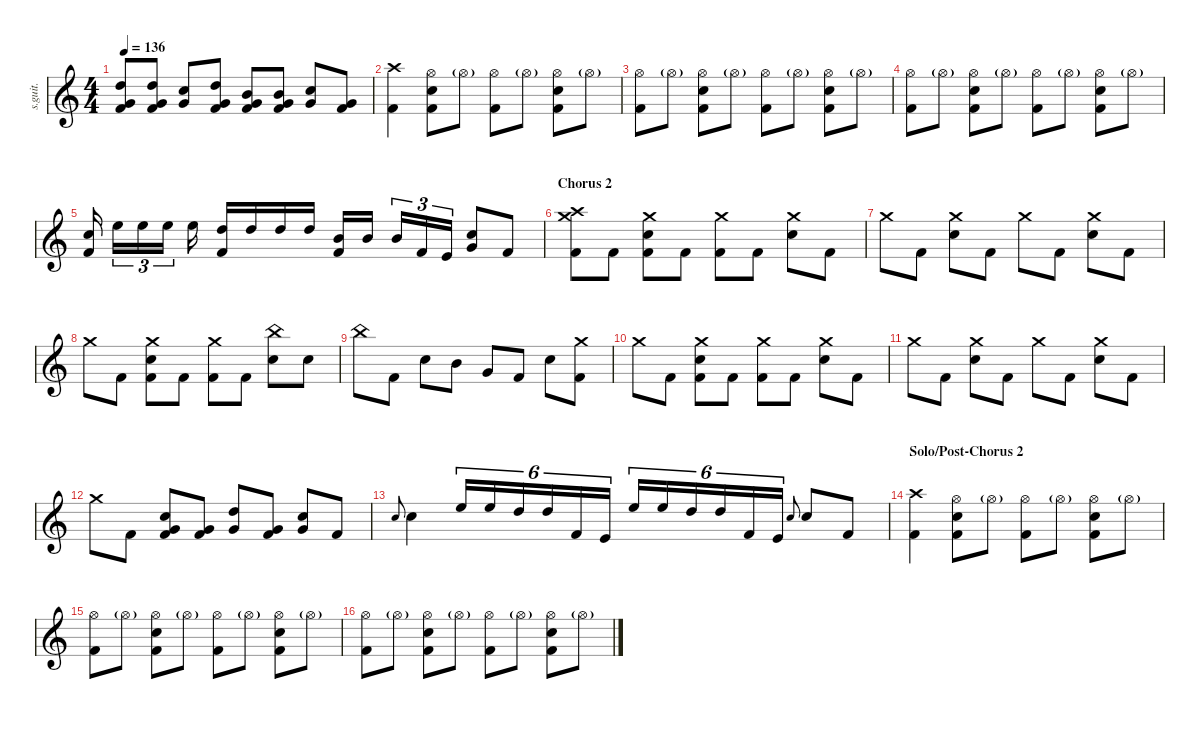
\defaultSystemsLayout 4
\hideDynamics
\bracketExtendMode nobrackets
\track ("Joey Jordison" "s.guit.") {instrument percussion}
\staff {score}
\articulation defaults
\ts (4 4)
\tempo 136
\clef g2
\ks c
("Kick (hit) 2" "High Tom (hit)" "Very Low Tom (hit)").8{lyrics (0 "") lyrics (1 "") lyrics (2 "") lyrics (3 "") lyrics (4 "") dy fff} ("Kick (hit) 2" "High Tom (hit)" "Very Low Tom (hit)").8{lyrics (0 "") lyrics (1 "") lyrics (2 "") lyrics (3 "") lyrics (4 "")} ("Snare (hit) 2" "Very Low Tom (hit)").8{lyrics (0 "") lyrics (1 "") lyrics (2 "") lyrics (3 "") lyrics (4 "")} ("Kick (hit) 2" "High Tom (hit)" "Very Low Tom (hit)").8{lyrics (0 "") lyrics (1 "") lyrics (2 "") lyrics (3 "") lyrics (4 "")} ("Kick (hit) 2" "Mid Tom (hit)" "Very Low Tom (hit)").8{lyrics (0 "") lyrics (1 "") lyrics (2 "") lyrics (3 "") lyrics (4 "")} ("Kick (hit) 2" "Mid Tom (hit)" "Very Low Tom (hit)").8{lyrics (0 "") lyrics (1 "") lyrics (2 "") lyrics (3 "") lyrics (4 "")} ("Snare (hit) 2" "Very Low Tom (hit)").8{lyrics (0 "") lyrics (1 "") lyrics (2 "") lyrics (3 "") lyrics (4 "")} ("Kick (hit) 2" "Very Low Tom (hit)").8{lyrics (0 "") lyrics (1 "") lyrics (2 "") lyrics (3 "") lyrics (4 "")} |
("Crash high (hit)" "Kick (hit) 2").4{lyrics (0 "") lyrics (1 "") lyrics (2 "") lyrics (3 "") lyrics (4 "")} ("Hi-Hat (open)" "Kick (hit) 2" "Snare (hit) 2").8{lyrics (0 "") lyrics (1 "") lyrics (2 "") lyrics (3 "") lyrics (4 "")} "Hi-Hat (open)"{g}.8{lyrics (0 "") lyrics (1 "") lyrics (2 "") lyrics (3 "") lyrics (4 "")} ("Hi-Hat (open)" "Kick (hit) 2").8{lyrics (0 "") lyrics (1 "") lyrics (2 "") lyrics (3 "") lyrics (4 "")} "Hi-Hat (open)"{g}.8{lyrics (0 "") lyrics (1 "") lyrics (2 "") lyrics (3 "") lyrics (4 "")} ("Hi-Hat (open)" "Kick (hit) 2" "Snare (hit) 2").8{lyrics (0 "") lyrics (1 "") lyrics (2 "") lyrics (3 "") lyrics (4 "")} "Hi-Hat (open)"{g}.8{lyrics (0 "") lyrics (1 "") lyrics (2 "") lyrics (3 "") lyrics (4 "")} |
("Hi-Hat (open)" "Kick (hit) 2").8{lyrics (0 "") lyrics (1 "") lyrics (2 "") lyrics (3 "") lyrics (4 "")} "Hi-Hat (open)"{g}.8{lyrics (0 "") lyrics (1 "") lyrics (2 "") lyrics (3 "") lyrics (4 "")} ("Hi-Hat (open)" "Kick (hit) 2" "Snare (hit) 2").8{lyrics (0 "") lyrics (1 "") lyrics (2 "") lyrics (3 "") lyrics (4 "")} "Hi-Hat (open)"{g}.8{lyrics (0 "") lyrics (1 "") lyrics (2 "") lyrics (3 "") lyrics (4 "")} ("Hi-Hat (open)" "Kick (hit) 2").8{lyrics (0 "") lyrics (1 "") lyrics (2 "") lyrics (3 "") lyrics (4 "")} "Hi-Hat (open)"{g}.8{lyrics (0 "") lyrics (1 "") lyrics (2 "") lyrics (3 "") lyrics (4 "")} ("Hi-Hat (open)" "Kick (hit) 2" "Snare (hit) 2").8{lyrics (0 "") lyrics (1 "") lyrics (2 "") lyrics (3 "") lyrics (4 "")} "Hi-Hat (open)"{g}.8{lyrics (0 "") lyrics (1 "") lyrics (2 "") lyrics (3 "") lyrics (4 "")} |
("Hi-Hat (open)" "Kick (hit) 2").8{lyrics (0 "") lyrics (1 "") lyrics (2 "") lyrics (3 "") lyrics (4 "")} "Hi-Hat (open)"{g}.8{lyrics (0 "") lyrics (1 "") lyrics (2 "") lyrics (3 "") lyrics (4 "")} ("Hi-Hat (open)" "Kick (hit) 2" "Snare (hit) 2").8{lyrics (0 "") lyrics (1 "") lyrics (2 "") lyrics (3 "") lyrics (4 "")} "Hi-Hat (open)"{g}.8{lyrics (0 "") lyrics (1 "") lyrics (2 "") lyrics (3 "") lyrics (4 "")} ("Hi-Hat (open)" "Kick (hit) 2").8{lyrics (0 "") lyrics (1 "") lyrics (2 "") lyrics (3 "") lyrics (4 "")} "Hi-Hat (open)"{g}.8{lyrics (0 "") lyrics (1 "") lyrics (2 "") lyrics (3 "") lyrics (4 "")} ("Hi-Hat (open)" "Kick (hit) 2" "Snare (hit) 2").8{lyrics (0 "") lyrics (1 "") lyrics (2 "") lyrics (3 "") lyrics (4 "")} "Hi-Hat (open)"{g}.8{lyrics (0 "") lyrics (1 "") lyrics (2 "") lyrics (3 "") lyrics (4 "")} |
("Snare (hit) 2" "Kick (hit) 2").16{lyrics (0 "") lyrics (1 "") lyrics (2 "") lyrics (3 "") lyrics (4 "")} "High Floor Tom (hit)".16{tu (3 2) lyrics (0 "") lyrics (1 "") lyrics (2 "") lyrics (3 "") lyrics (4 "")} "High Floor Tom (hit)".16{tu (3 2) lyrics (0 "") lyrics (1 "") lyrics (2 "") lyrics (3 "") lyrics (4 "")} "High Floor Tom (hit)".16{tu (3 2) lyrics (0 "") lyrics (1 "") lyrics (2 "") lyrics (3 "") lyrics (4 "")} "High Floor Tom (hit)".16{lyrics (0 "") lyrics (1 "") lyrics (2 "") lyrics (3 "") lyrics (4 "")} ("High Tom (hit)" "Kick (hit) 2").16{lyrics (0 "") lyrics (1 "") lyrics (2 "") lyrics (3 "") lyrics (4 "")} "High Tom (hit)".16{lyrics (0 "") lyrics (1 "") lyrics (2 "") lyrics (3 "") lyrics (4 "")} "High Tom (hit)".16{lyrics (0 "") lyrics (1 "") lyrics (2 "") lyrics (3 "") lyrics (4 "")} "High Tom (hit)".16{lyrics (0 "") lyrics (1 "") lyrics (2 "") lyrics (3 "") lyrics (4 "")} ("Kick (hit) 2" "Mid Tom (hit)").16{lyrics (0 "") lyrics (1 "") lyrics (2 "") lyrics (3 "") lyrics (4 "")} "Mid Tom (hit)".16{lyrics (0 "") lyrics (1 "") lyrics (2 "") lyrics (3 "") lyrics (4 "")} "Mid Tom (hit)".16{tu (3 2) lyrics (0 "") lyrics (1 "") lyrics (2 "") lyrics (3 "") lyrics (4 "")} "Kick (hit) 2".16{tu (3 2) lyrics (0 "") lyrics (1 "") lyrics (2 "") lyrics (3 "") lyrics (4 "")} "Kick (hit)".16{tu (3 2) lyrics (0 "") lyrics (1 "") lyrics (2 "") lyrics (3 "") lyrics (4 "")} ("Snare (hit) 2" "Very Low Tom (hit)").8{lyrics (0 "") lyrics (1 "") lyrics (2 "") lyrics (3 "") lyrics (4 "")} "Kick (hit) 2".8{lyrics (0 "") lyrics (1 "") lyrics (2 "") lyrics (3 "") lyrics (4 "")} |
\section ("" "Chorus 2")
("Kick (hit) 2" "Crash high (hit)" "Crash medium (hit)").8{lyrics (0 "") lyrics (1 "") lyrics (2 "") lyrics (3 "") lyrics (4 "")} "Kick (hit) 2".8{lyrics (0 "") lyrics (1 "") lyrics (2 "") lyrics (3 "") lyrics (4 "")} ("Snare (hit) 2" "Kick (hit) 2" "Crash medium (hit)").8{lyrics (0 "") lyrics (1 "") lyrics (2 "") lyrics (3 "") lyrics (4 "")} "Kick (hit) 2".8{lyrics (0 "") lyrics (1 "") lyrics (2 "") lyrics (3 "") lyrics (4 "")} ("Kick (hit) 2" "Crash medium (hit)").8{lyrics (0 "") lyrics (1 "") lyrics (2 "") lyrics (3 "") lyrics (4 "")} "Kick (hit) 2".8{lyrics (0 "") lyrics (1 "") lyrics (2 "") lyrics (3 "") lyrics (4 "")} ("Snare (hit) 2" "Crash medium (hit)").8{lyrics (0 "") lyrics (1 "") lyrics (2 "") lyrics (3 "") lyrics (4 "")} "Kick (hit) 2".8{lyrics (0 "") lyrics (1 "") lyrics (2 "") lyrics (3 "") lyrics (4 "")} |
"Crash medium (hit)".8{lyrics (0 "") lyrics (1 "") lyrics (2 "") lyrics (3 "") lyrics (4 "")} "Kick (hit) 2".8{lyrics (0 "") lyrics (1 "") lyrics (2 "") lyrics (3 "") lyrics (4 "")} ("Snare (hit) 2" "Crash medium (hit)").8{lyrics (0 "") lyrics (1 "") lyrics (2 "") lyrics (3 "") lyrics (4 "")} "Kick (hit) 2".8{lyrics (0 "") lyrics (1 "") lyrics (2 "") lyrics (3 "") lyrics (4 "")} "Crash medium (hit)".8{lyrics (0 "") lyrics (1 "") lyrics (2 "") lyrics (3 "") lyrics (4 "")} "Kick (hit) 2".8{lyrics (0 "") lyrics (1 "") lyrics (2 "") lyrics (3 "") lyrics (4 "")} ("Snare (hit) 2" "Crash medium (hit)").8{lyrics (0 "") lyrics (1 "") lyrics (2 "") lyrics (3 "") lyrics (4 "")} "Kick (hit) 2".8{lyrics (0 "") lyrics (1 "") lyrics (2 "") lyrics (3 "") lyrics (4 "")} |
"Crash medium (hit)".8{lyrics (0 "") lyrics (1 "") lyrics (2 "") lyrics (3 "") lyrics (4 "")} "Kick (hit) 2".8{lyrics (0 "") lyrics (1 "") lyrics (2 "") lyrics (3 "") lyrics (4 "")} ("Snare (hit) 2" "Kick (hit) 2" "Crash medium (hit)").8{lyrics (0 "") lyrics (1 "") lyrics (2 "") lyrics (3 "") lyrics (4 "")} "Kick (hit) 2".8{lyrics (0 "") lyrics (1 "") lyrics (2 "") lyrics (3 "") lyrics (4 "")} ("Kick (hit) 2" "Crash medium (hit)").8{lyrics (0 "") lyrics (1 "") lyrics (2 "") lyrics (3 "") lyrics (4 "")} "Kick (hit) 2".8{lyrics (0 "") lyrics (1 "") lyrics (2 "") lyrics (3 "") lyrics (4 "")} ("Snare (hit) 2" "China (hit)").8{lyrics (0 "") lyrics (1 "") lyrics (2 "") lyrics (3 "") lyrics (4 "")} "Snare (hit) 2".8{lyrics (0 "") lyrics (1 "") lyrics (2 "") lyrics (3 "") lyrics (4 "")} |
"China (hit)".8{lyrics (0 "") lyrics (1 "") lyrics (2 "") lyrics (3 "") lyrics (4 "")} "Kick (hit) 2".8{lyrics (0 "") lyrics (1 "") lyrics (2 "") lyrics (3 "") lyrics (4 "")} "Snare (hit) 2".8{lyrics (0 "") lyrics (1 "") lyrics (2 "") lyrics (3 "") lyrics (4 "")} "Mid Tom (hit)".8{lyrics (0 "") lyrics (1 "") lyrics (2 "") lyrics (3 "") lyrics (4 "")} "Very Low Tom (hit)".8{lyrics (0 "") lyrics (1 "") lyrics (2 "") lyrics (3 "") lyrics (4 "")} "Kick (hit) 2".8{lyrics (0 "") lyrics (1 "") lyrics (2 "") lyrics (3 "") lyrics (4 "")} "Snare (hit) 2".8{lyrics (0 "") lyrics (1 "") lyrics (2 "") lyrics (3 "") lyrics (4 "")} ("Kick (hit) 2" "Crash medium (hit)").8{lyrics (0 "") lyrics (1 "") lyrics (2 "") lyrics (3 "") lyrics (4 "")} |
"Crash medium (hit)".8{lyrics (0 "") lyrics (1 "") lyrics (2 "") lyrics (3 "") lyrics (4 "")} "Kick (hit) 2".8{lyrics (0 "") lyrics (1 "") lyrics (2 "") lyrics (3 "") lyrics (4 "")} ("Snare (hit) 2" "Kick (hit) 2" "Crash medium (hit)").8{lyrics (0 "") lyrics (1 "") lyrics (2 "") lyrics (3 "") lyrics (4 "")} "Kick (hit) 2".8{lyrics (0 "") lyrics (1 "") lyrics (2 "") lyrics (3 "") lyrics (4 "")} ("Kick (hit) 2" "Crash medium (hit)").8{lyrics (0 "") lyrics (1 "") lyrics (2 "") lyrics (3 "") lyrics (4 "")} "Kick (hit) 2".8{lyrics (0 "") lyrics (1 "") lyrics (2 "") lyrics (3 "") lyrics (4 "")} ("Snare (hit) 2" "Crash medium (hit)").8{lyrics (0 "") lyrics (1 "") lyrics (2 "") lyrics (3 "") lyrics (4 "")} "Kick (hit) 2".8{lyrics (0 "") lyrics (1 "") lyrics (2 "") lyrics (3 "") lyrics (4 "")} |
"Crash medium (hit)".8{lyrics (0 "") lyrics (1 "") lyrics (2 "") lyrics (3 "") lyrics (4 "")} "Kick (hit) 2".8{lyrics (0 "") lyrics (1 "") lyrics (2 "") lyrics (3 "") lyrics (4 "")} ("Snare (hit) 2" "Crash medium (hit)").8{lyrics (0 "") lyrics (1 "") lyrics (2 "") lyrics (3 "") lyrics (4 "")} "Kick (hit) 2".8{lyrics (0 "") lyrics (1 "") lyrics (2 "") lyrics (3 "") lyrics (4 "")} "Crash medium (hit)".8{lyrics (0 "") lyrics (1 "") lyrics (2 "") lyrics (3 "") lyrics (4 "")} "Kick (hit) 2".8{lyrics (0 "") lyrics (1 "") lyrics (2 "") lyrics (3 "") lyrics (4 "")} ("Snare (hit) 2" "Crash medium (hit)").8{lyrics (0 "") lyrics (1 "") lyrics (2 "") lyrics (3 "") lyrics (4 "")} "Kick (hit) 2".8{lyrics (0 "") lyrics (1 "") lyrics (2 "") lyrics (3 "") lyrics (4 "")} |
"Crash medium (hit)".8{lyrics (0 "") lyrics (1 "") lyrics (2 "") lyrics (3 "") lyrics (4 "")} "Kick (hit) 2".8{lyrics (0 "") lyrics (1 "") lyrics (2 "") lyrics (3 "") lyrics (4 "")} ("Snare (hit) 2" "Kick (hit) 2" "Very Low Tom (hit)").8{lyrics (0 "") lyrics (1 "") lyrics (2 "") lyrics (3 "") lyrics (4 "")} ("Kick (hit) 2" "Very Low Tom (hit)").8{lyrics (0 "") lyrics (1 "") lyrics (2 "") lyrics (3 "") lyrics (4 "")} ("Very Low Tom (hit)" "High Tom (hit)").8{lyrics (0 "") lyrics (1 "") lyrics (2 "") lyrics (3 "") lyrics (4 "")} ("Kick (hit) 2" "Very Low Tom (hit)").8{lyrics (0 "") lyrics (1 "") lyrics (2 "") lyrics (3 "") lyrics (4 "")} ("Snare (hit) 2" "Very Low Tom (hit)").8{lyrics (0 "") lyrics (1 "") lyrics (2 "") lyrics (3 "") lyrics (4 "")} "Kick (hit) 2".8{lyrics (0 "") lyrics (1 "") lyrics (2 "") lyrics (3 "") lyrics (4 "")} |
"Snare (hit) 2".8{lyrics (0 "") lyrics (1 "") lyrics (2 "") lyrics (3 "") lyrics (4 "") gr onbeat} "Snare (hit) 2".4{lyrics (0 "") lyrics (1 "") lyrics (2 "") lyrics (3 "") lyrics (4 "")} "High Floor Tom (hit)".16{tu (6 4) lyrics (0 "") lyrics (1 "") lyrics (2 "") lyrics (3 "") lyrics (4 "")} "High Floor Tom (hit)".16{tu (6 4) lyrics (0 "") lyrics (1 "") lyrics (2 "") lyrics (3 "") lyrics (4 "")} "High Tom (hit)".16{tu (6 4) lyrics (0 "") lyrics (1 "") lyrics (2 "") lyrics (3 "") lyrics (4 "")} "High Tom (hit)".16{tu (6 4) lyrics (0 "") lyrics (1 "") lyrics (2 "") lyrics (3 "") lyrics (4 "")} "Kick (hit) 2".16{tu (6 4) lyrics (0 "") lyrics (1 "") lyrics (2 "") lyrics (3 "") lyrics (4 "")} "Kick (hit)".16{tu (6 4) lyrics (0 "") lyrics (1 "") lyrics (2 "") lyrics (3 "") lyrics (4 "")} "High Floor Tom (hit)".16{tu (6 4) lyrics (0 "") lyrics (1 "") lyrics (2 "") lyrics (3 "") lyrics (4 "")} "High Floor Tom (hit)".16{tu (6 4) lyrics (0 "") lyrics (1 "") lyrics (2 "") lyrics (3 "") lyrics (4 "")} "High Tom (hit)".16{tu (6 4) lyrics (0 "") lyrics (1 "") lyrics (2 "") lyrics (3 "") lyrics (4 "")} "High Tom (hit)".16{tu (6 4) lyrics (0 "") lyrics (1 "") lyrics (2 "") lyrics (3 "") lyrics (4 "")} "Kick (hit) 2".16{tu (6 4) lyrics (0 "") lyrics (1 "") lyrics (2 "") lyrics (3 "") lyrics (4 "")} "Kick (hit)".16{tu (6 4) lyrics (0 "") lyrics (1 "") lyrics (2 "") lyrics (3 "") lyrics (4 "")} "Snare (hit) 2".8{lyrics (0 "") lyrics (1 "") lyrics (2 "") lyrics (3 "") lyrics (4 "") gr onbeat} "Snare (hit) 2".8{lyrics (0 "") lyrics (1 "") lyrics (2 "") lyrics (3 "") lyrics (4 "")} "Kick (hit) 2".8{lyrics (0 "") lyrics (1 "") lyrics (2 "") lyrics (3 "") lyrics (4 "")} |
\section ("" "Solo/Post-Chorus 2")
("Crash high (hit)" "Kick (hit) 2").4{lyrics (0 "") lyrics (1 "") lyrics (2 "") lyrics (3 "") lyrics (4 "")} ("Hi-Hat (open)" "Kick (hit) 2" "Snare (hit) 2").8{lyrics (0 "") lyrics (1 "") lyrics (2 "") lyrics (3 "") lyrics (4 "")} "Hi-Hat (open)"{g}.8{lyrics (0 "") lyrics (1 "") lyrics (2 "") lyrics (3 "") lyrics (4 "")} ("Hi-Hat (open)" "Kick (hit) 2").8{lyrics (0 "") lyrics (1 "") lyrics (2 "") lyrics (3 "") lyrics (4 "")} "Hi-Hat (open)"{g}.8{lyrics (0 "") lyrics (1 "") lyrics (2 "") lyrics (3 "") lyrics (4 "")} ("Hi-Hat (open)" "Kick (hit) 2" "Snare (hit) 2").8{lyrics (0 "") lyrics (1 "") lyrics (2 "") lyrics (3 "") lyrics (4 "")} "Hi-Hat (open)"{g}.8{lyrics (0 "") lyrics (1 "") lyrics (2 "") lyrics (3 "") lyrics (4 "")} |
("Hi-Hat (open)" "Kick (hit) 2").8{lyrics (0 "") lyrics (1 "") lyrics (2 "") lyrics (3 "") lyrics (4 "")} "Hi-Hat (open)"{g}.8{lyrics (0 "") lyrics (1 "") lyrics (2 "") lyrics (3 "") lyrics (4 "")} ("Hi-Hat (open)" "Kick (hit) 2" "Snare (hit) 2").8{lyrics (0 "") lyrics (1 "") lyrics (2 "") lyrics (3 "") lyrics (4 "")} "Hi-Hat (open)"{g}.8{lyrics (0 "") lyrics (1 "") lyrics (2 "") lyrics (3 "") lyrics (4 "")} ("Hi-Hat (open)" "Kick (hit) 2").8{lyrics (0 "") lyrics (1 "") lyrics (2 "") lyrics (3 "") lyrics (4 "")} "Hi-Hat (open)"{g}.8{lyrics (0 "") lyrics (1 "") lyrics (2 "") lyrics (3 "") lyrics (4 "")} ("Hi-Hat (open)" "Kick (hit) 2" "Snare (hit) 2").8{lyrics (0 "") lyrics (1 "") lyrics (2 "") lyrics (3 "") lyrics (4 "")} "Hi-Hat (open)"{g}.8{lyrics (0 "") lyrics (1 "") lyrics (2 "") lyrics (3 "") lyrics (4 "")} |
("Hi-Hat (open)" "Kick (hit) 2").8{lyrics (0 "") lyrics (1 "") lyrics (2 "") lyrics (3 "") lyrics (4 "")} "Hi-Hat (open)"{g}.8{lyrics (0 "") lyrics (1 "") lyrics (2 "") lyrics (3 "") lyrics (4 "")} ("Hi-Hat (open)" "Kick (hit) 2" "Snare (hit) 2").8{lyrics (0 "") lyrics (1 "") lyrics (2 "") lyrics (3 "") lyrics (4 "")} "Hi-Hat (open)"{g}.8{lyrics (0 "") lyrics (1 "") lyrics (2 "") lyrics (3 "") lyrics (4 "")} ("Hi-Hat (open)" "Kick (hit) 2").8{lyrics (0 "") lyrics (1 "") lyrics (2 "") lyrics (3 "") lyrics (4 "")} "Hi-Hat (open)"{g}.8{lyrics (0 "") lyrics (1 "") lyrics (2 "") lyrics (3 "") lyrics (4 "")} ("Hi-Hat (open)" "Kick (hit) 2" "Snare (hit) 2").8{lyrics (0 "") lyrics (1 "") lyrics (2 "") lyrics (3 "") lyrics (4 "")} "Hi-Hat (open)"{g}.8{lyrics (0 "") lyrics (1 "") lyrics (2 "") lyrics (3 "") lyrics (4 "")}
